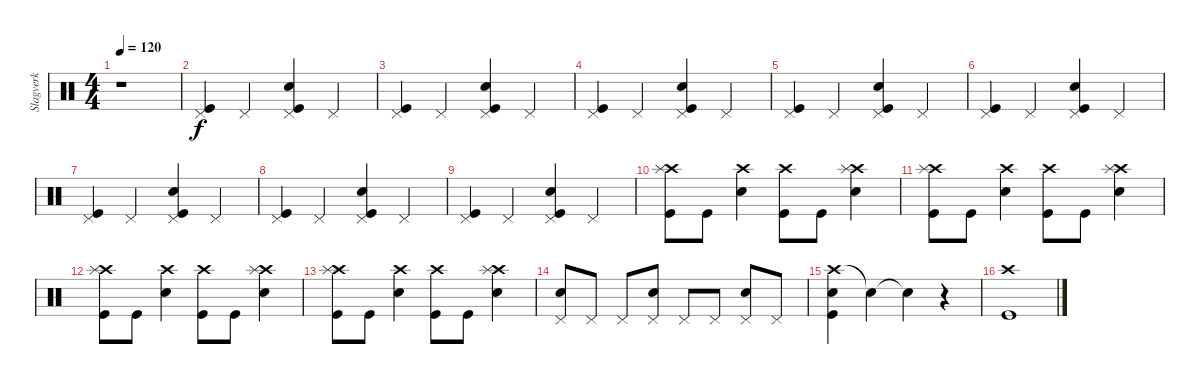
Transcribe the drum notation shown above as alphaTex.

\track ("Slagverk" "Slagverk") {instrument percussion}
\staff {score}
\articulation defaults
\ts (4 4)
\tempo 120
\clef neutral
\ks c
r.1{dy f} |
("Pedal Hi-Hat (hit)" "Kick (hit)").4 "Pedal Hi-Hat (hit)".4 ("Pedal Hi-Hat (hit)" "Snare (hit) 2" "Kick (hit)").4 "Pedal Hi-Hat (hit)".4 |
("Pedal Hi-Hat (hit)" "Kick (hit)").4 "Pedal Hi-Hat (hit)".4 ("Pedal Hi-Hat (hit)" "Snare (hit) 2" "Kick (hit)").4 "Pedal Hi-Hat (hit)".4 |
("Pedal Hi-Hat (hit)" "Kick (hit)").4 "Pedal Hi-Hat (hit)".4 ("Pedal Hi-Hat (hit)" "Snare (hit) 2" "Kick (hit)").4 "Pedal Hi-Hat (hit)".4 |
("Pedal Hi-Hat (hit)" "Kick (hit)").4 "Pedal Hi-Hat (hit)".4 ("Pedal Hi-Hat (hit)" "Snare (hit) 2" "Kick (hit)").4 "Pedal Hi-Hat (hit)".4 |
("Pedal Hi-Hat (hit)" "Kick (hit)").4 "Pedal Hi-Hat (hit)".4 ("Pedal Hi-Hat (hit)" "Snare (hit) 2" "Kick (hit)").4 "Pedal Hi-Hat (hit)".4 |
("Pedal Hi-Hat (hit)" "Kick (hit)").4 "Pedal Hi-Hat (hit)".4 ("Pedal Hi-Hat (hit)" "Snare (hit) 2" "Kick (hit)").4 "Pedal Hi-Hat (hit)".4 |
("Pedal Hi-Hat (hit)" "Kick (hit)").4 "Pedal Hi-Hat (hit)".4 ("Pedal Hi-Hat (hit)" "Snare (hit) 2" "Kick (hit)").4 "Pedal Hi-Hat (hit)".4 |
("Pedal Hi-Hat (hit)" "Kick (hit)").4 "Pedal Hi-Hat (hit)".4 ("Pedal Hi-Hat (hit)" "Snare (hit) 2" "Kick (hit)").4 "Pedal Hi-Hat (hit)".4 |
("Crash high (hit)" "Splash (hit)" "Kick (hit)").8 "Kick (hit)".8 ("Crash high (hit)" "Snare (hit) 2").4 ("Crash high (hit)" "Kick (hit)").8 "Kick (hit)".8 ("Crash high (hit)" "Splash (hit)" "Snare (hit) 2").4 |
("Crash high (hit)" "Splash (hit)" "Kick (hit)").8 "Kick (hit)".8 ("Crash high (hit)" "Snare (hit) 2").4 ("Crash high (hit)" "Kick (hit)").8 "Kick (hit)".8 ("Crash high (hit)" "Splash (hit)" "Snare (hit) 2").4 |
("Crash high (hit)" "Splash (hit)" "Kick (hit)").8 "Kick (hit)".8 ("Crash high (hit)" "Snare (hit) 2").4 ("Crash high (hit)" "Kick (hit)").8 "Kick (hit)".8 ("Crash high (hit)" "Splash (hit)" "Snare (hit) 2").4 |
("Crash high (hit)" "Splash (hit)" "Kick (hit)").8 "Kick (hit)".8 ("Crash high (hit)" "Snare (hit) 2").4 ("Crash high (hit)" "Kick (hit)").8 "Kick (hit)".8 ("Crash high (hit)" "Splash (hit)" "Snare (hit) 2").4 |
("Pedal Hi-Hat (hit)" "Snare (hit) 2").8 "Pedal Hi-Hat (hit)".8 "Pedal Hi-Hat (hit)".8 ("Pedal Hi-Hat (hit)" "Snare (hit) 2").8 "Pedal Hi-Hat (hit)".8 "Pedal Hi-Hat (hit)".8 ("Pedal Hi-Hat (hit)" "Snare (hit) 2").8 "Pedal Hi-Hat (hit)".8 |
("Crash high (hit)" "Snare (hit) 2" "Kick (hit)").4 "Snare (hit)"{t}.4 "Snare (hit)"{t}.4 r.4 |
("Crash high (hit)" "Kick (hit)").1
